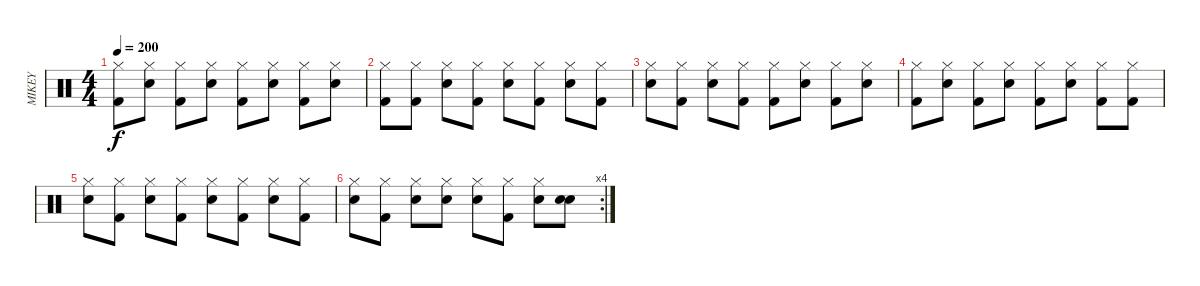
\track ("MIKEY" "MIKEY") {instrument percussion}
\staff {score}
\articulation defaults
\ts (4 4)
\tempo 200
\clef neutral
\ks c
("Hi-Hat (closed)" "Kick (hit) 2").8{dy f} ("Hi-Hat (closed)" "Electric Snare (hit)").8 ("Hi-Hat (closed)" "Kick (hit) 2").8 ("Hi-Hat (closed)" "Electric Snare (hit)").8 ("Hi-Hat (closed)" "Kick (hit) 2").8 ("Hi-Hat (closed)" "Electric Snare (hit)").8 ("Hi-Hat (closed)" "Kick (hit) 2").8 ("Hi-Hat (closed)" "Electric Snare (hit)").8 |
("Hi-Hat (closed)" "Kick (hit) 2").8 ("Hi-Hat (closed)" "Kick (hit) 2").8 ("Hi-Hat (closed)" "Electric Snare (hit)").8 ("Hi-Hat (closed)" "Kick (hit) 2").8 ("Hi-Hat (closed)" "Electric Snare (hit)").8 ("Hi-Hat (closed)" "Kick (hit) 2").8 ("Hi-Hat (closed)" "Electric Snare (hit)").8 ("Hi-Hat (closed)" "Kick (hit) 2").8 |
("Hi-Hat (closed)" "Electric Snare (hit)").8 ("Hi-Hat (closed)" "Kick (hit) 2").8 ("Hi-Hat (closed)" "Electric Snare (hit)").8 ("Hi-Hat (closed)" "Kick (hit) 2").8 ("Hi-Hat (closed)" "Kick (hit) 2").8 ("Hi-Hat (closed)" "Electric Snare (hit)").8 ("Hi-Hat (closed)" "Kick (hit) 2").8 ("Hi-Hat (closed)" "Electric Snare (hit)").8 |
("Hi-Hat (closed)" "Kick (hit) 2").8 ("Hi-Hat (closed)" "Electric Snare (hit)").8 ("Hi-Hat (closed)" "Kick (hit) 2").8 ("Hi-Hat (closed)" "Electric Snare (hit)").8 ("Hi-Hat (closed)" "Kick (hit) 2").8 ("Hi-Hat (closed)" "Electric Snare (hit)").8 ("Hi-Hat (closed)" "Kick (hit) 2").8 ("Hi-Hat (closed)" "Kick (hit) 2").8 |
("Hi-Hat (closed)" "Electric Snare (hit)").8 ("Hi-Hat (closed)" "Kick (hit) 2").8 ("Hi-Hat (closed)" "Electric Snare (hit)").8 ("Hi-Hat (closed)" "Kick (hit) 2").8 ("Hi-Hat (closed)" "Electric Snare (hit)").8 ("Hi-Hat (closed)" "Kick (hit) 2").8 ("Hi-Hat (closed)" "Electric Snare (hit)").8 ("Hi-Hat (closed)" "Kick (hit) 2").8 |
\rc 4
("Hi-Hat (closed)" "Electric Snare (hit)").8 ("Hi-Hat (closed)" "Kick (hit) 2").8 ("Hi-Hat (closed)" "Electric Snare (hit)").8 ("Hi-Hat (closed)" "Electric Snare (hit)").8 ("Hi-Hat (closed)" "Electric Snare (hit)").8 ("Hi-Hat (closed)" "Kick (hit) 2").8 ("Hi-Hat (closed)" "Electric Snare (hit)").8 ("Electric Snare (hit)" "Electric Snare (hit)").8
